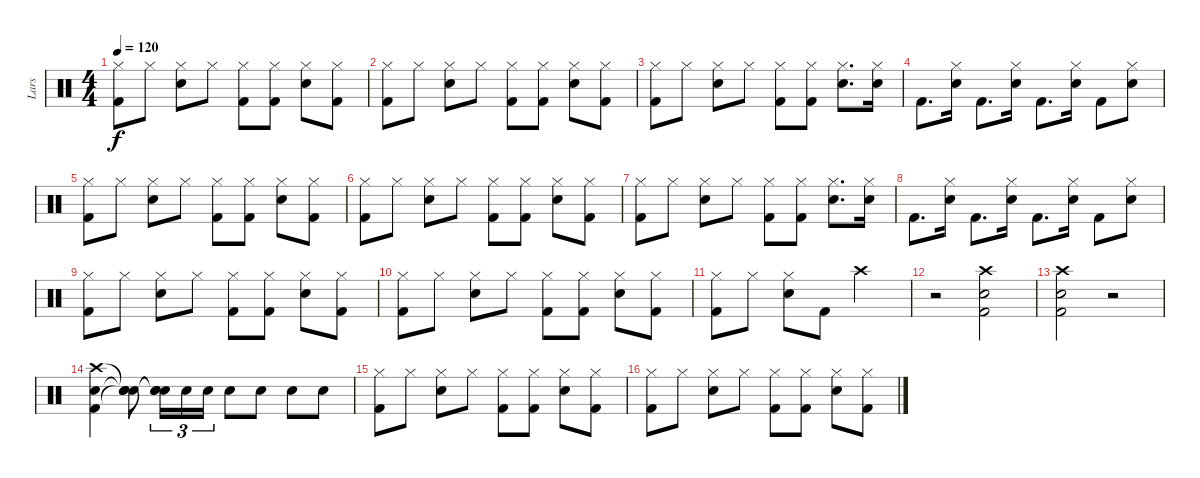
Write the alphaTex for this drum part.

\track ("Lars" "Lars") {instrument percussion}
\staff {score}
\articulation defaults
\ts (4 4)
\tempo 120
\clef neutral
\ks c
("Hi-Hat (closed)" "Kick (hit) 2").8{dy f} "Hi-Hat (closed)".8 ("Hi-Hat (closed)" "Electric Snare (hit)").8 "Hi-Hat (closed)".8 ("Hi-Hat (closed)" "Kick (hit) 2").8 ("Hi-Hat (closed)" "Kick (hit) 2").8 ("Hi-Hat (closed)" "Electric Snare (hit)").8 ("Hi-Hat (closed)" "Kick (hit) 2").8 |
("Hi-Hat (closed)" "Kick (hit) 2").8 "Hi-Hat (closed)".8 ("Hi-Hat (closed)" "Electric Snare (hit)").8 "Hi-Hat (closed)".8 ("Hi-Hat (closed)" "Kick (hit) 2").8 ("Hi-Hat (closed)" "Kick (hit) 2").8 ("Hi-Hat (closed)" "Electric Snare (hit)").8 ("Hi-Hat (closed)" "Kick (hit) 2").8 |
("Hi-Hat (closed)" "Kick (hit) 2").8 "Hi-Hat (closed)".8 ("Hi-Hat (closed)" "Electric Snare (hit)").8 "Hi-Hat (closed)".8 ("Hi-Hat (closed)" "Kick (hit) 2").8 ("Hi-Hat (closed)" "Kick (hit) 2").8 ("Hi-Hat (closed)" "Electric Snare (hit)").8{d} ("Hi-Hat (closed)" "Electric Snare (hit)").16 |
"Kick (hit) 2".8{d} ("Hi-Hat (closed)" "Electric Snare (hit)").16 "Kick (hit) 2".8{d} ("Hi-Hat (closed)" "Electric Snare (hit)").16 "Kick (hit) 2".8{d} ("Hi-Hat (closed)" "Electric Snare (hit)").16 "Kick (hit) 2".8 ("Hi-Hat (closed)" "Electric Snare (hit)").8 |
("Hi-Hat (closed)" "Kick (hit) 2").8 "Hi-Hat (closed)".8 ("Hi-Hat (closed)" "Electric Snare (hit)").8 "Hi-Hat (closed)".8 ("Hi-Hat (closed)" "Kick (hit) 2").8 ("Hi-Hat (closed)" "Kick (hit) 2").8 ("Hi-Hat (closed)" "Electric Snare (hit)").8 ("Hi-Hat (closed)" "Kick (hit) 2").8 |
("Hi-Hat (closed)" "Kick (hit) 2").8 "Hi-Hat (closed)".8 ("Hi-Hat (closed)" "Electric Snare (hit)").8 "Hi-Hat (closed)".8 ("Hi-Hat (closed)" "Kick (hit) 2").8 ("Hi-Hat (closed)" "Kick (hit) 2").8 ("Hi-Hat (closed)" "Electric Snare (hit)").8 ("Hi-Hat (closed)" "Kick (hit) 2").8 |
("Hi-Hat (closed)" "Kick (hit) 2").8 "Hi-Hat (closed)".8 ("Hi-Hat (closed)" "Electric Snare (hit)").8 "Hi-Hat (closed)".8 ("Hi-Hat (closed)" "Kick (hit) 2").8 ("Hi-Hat (closed)" "Kick (hit) 2").8 ("Hi-Hat (closed)" "Electric Snare (hit)").8{d} ("Hi-Hat (closed)" "Electric Snare (hit)").16 |
"Kick (hit) 2".8{d} ("Hi-Hat (closed)" "Electric Snare (hit)").16 "Kick (hit) 2".8{d} ("Hi-Hat (closed)" "Electric Snare (hit)").16 "Kick (hit) 2".8{d} ("Hi-Hat (closed)" "Electric Snare (hit)").16 "Kick (hit) 2".8 ("Hi-Hat (closed)" "Electric Snare (hit)").8 |
("Hi-Hat (closed)" "Kick (hit) 2").8 "Hi-Hat (closed)".8 ("Hi-Hat (closed)" "Electric Snare (hit)").8 "Hi-Hat (closed)".8 ("Hi-Hat (closed)" "Kick (hit) 2").8 ("Hi-Hat (closed)" "Kick (hit) 2").8 ("Hi-Hat (closed)" "Electric Snare (hit)").8 ("Hi-Hat (closed)" "Kick (hit) 2").8 |
("Hi-Hat (closed)" "Kick (hit) 2").8 "Hi-Hat (closed)".8 ("Hi-Hat (closed)" "Electric Snare (hit)").8 "Hi-Hat (closed)".8 ("Hi-Hat (closed)" "Kick (hit) 2").8 ("Hi-Hat (closed)" "Kick (hit) 2").8 ("Hi-Hat (closed)" "Electric Snare (hit)").8 ("Hi-Hat (closed)" "Kick (hit) 2").8 |
("Hi-Hat (closed)" "Kick (hit) 2").8 "Hi-Hat (closed)".8 ("Hi-Hat (closed)" "Electric Snare (hit)").8 "Kick (hit) 2".8 "Crash high (hit)".2 |
r.2 ("Crash high (hit)" "Electric Snare (hit)" "Kick (hit) 2").2 |
("Crash high (hit)" "Electric Snare (hit)" "Kick (hit) 2").2 r.2 |
("Crash high (hit)" "Electric Snare (hit)" "Kick (hit) 2").4 ("Snare (hit)"{t} "Snare (hit)"{t} "Snare (hit)"{t}).8 ("Snare (hit)"{t} "Snare (hit)"{t} "Snare (hit)"{t}).16{tu (3 2)} "Electric Snare (hit)".16{tu (3 2)} "Electric Snare (hit)".16{tu (3 2)} "Electric Snare (hit)".8 "Electric Snare (hit)".8 "Electric Snare (hit)".8 "Electric Snare (hit)".8 |
("Hi-Hat (closed)" "Kick (hit) 2").8 "Hi-Hat (closed)".8 ("Hi-Hat (closed)" "Electric Snare (hit)").8 "Hi-Hat (closed)".8 ("Hi-Hat (closed)" "Kick (hit) 2").8 ("Hi-Hat (closed)" "Kick (hit) 2").8 ("Hi-Hat (closed)" "Electric Snare (hit)").8 ("Hi-Hat (closed)" "Kick (hit) 2").8 |
("Hi-Hat (closed)" "Kick (hit) 2").8 "Hi-Hat (closed)".8 ("Hi-Hat (closed)" "Electric Snare (hit)").8 "Hi-Hat (closed)".8 ("Hi-Hat (closed)" "Kick (hit) 2").8 ("Hi-Hat (closed)" "Kick (hit) 2").8 ("Hi-Hat (closed)" "Electric Snare (hit)").8 ("Hi-Hat (closed)" "Kick (hit) 2").8
